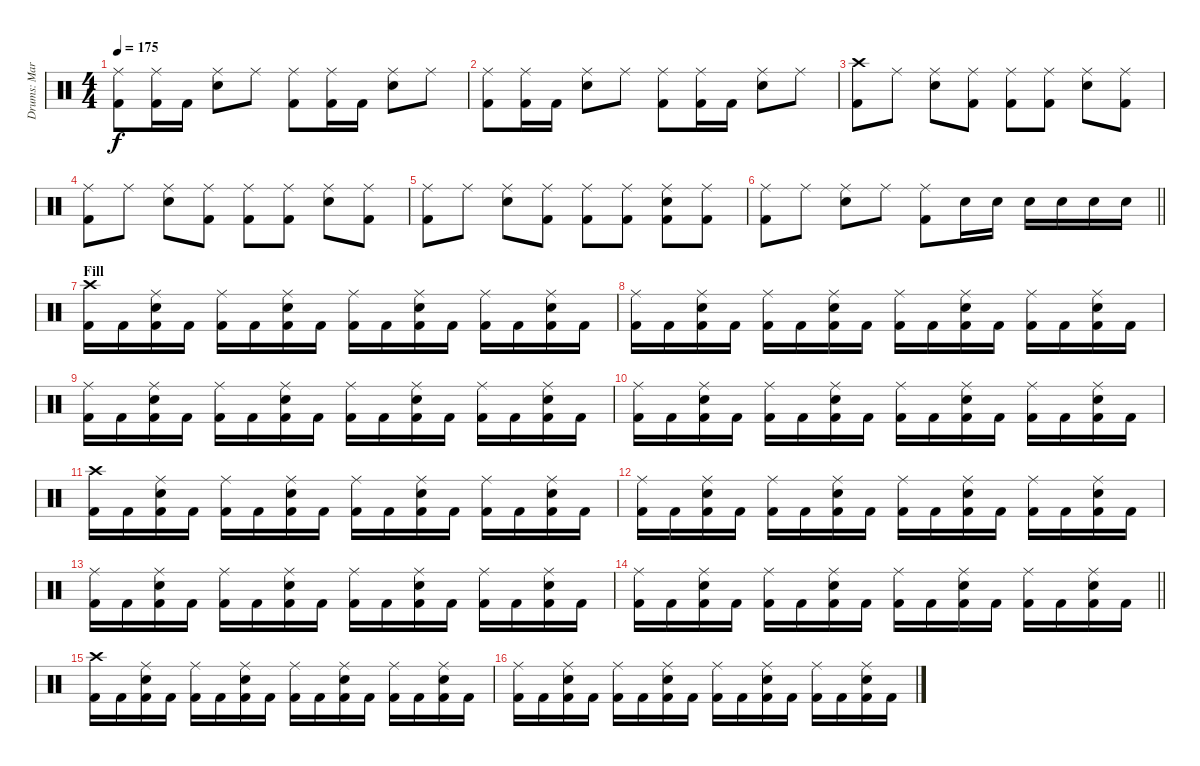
\track ("Drums: Martin Herzinger" "Drums: Mar") {instrument percussion}
\staff {score}
\articulation defaults
\ts (4 4)
\tempo 175
\clef neutral
\ks aminor
("Ride (middle)" "Kick (hit) 2").8{dy f} ("Ride (middle)" "Kick (hit) 2").16 "Kick (hit) 2".16 ("Ride (middle)" "Snare (hit) 2").8 "Ride (middle)".8 ("Ride (middle)" "Kick (hit) 2").8 ("Ride (middle)" "Kick (hit) 2").16 "Kick (hit) 2".16 ("Ride (middle)" "Snare (hit) 2").8 "Ride (middle)".8 |
("Ride (middle)" "Kick (hit) 2").8 ("Ride (middle)" "Kick (hit) 2").16 "Kick (hit) 2".16 ("Ride (middle)" "Snare (hit) 2").8 "Ride (middle)".8 ("Ride (middle)" "Kick (hit) 2").8 ("Ride (middle)" "Kick (hit) 2").16 "Kick (hit) 2".16 ("Ride (middle)" "Snare (hit) 2").8 "Ride (middle)".8 |
("Crash high (hit)" "Kick (hit) 2").8 "Ride (middle)".8 ("Ride (middle)" "Snare (hit) 2").8 ("Ride (middle)" "Kick (hit) 2").8 ("Ride (middle)" "Kick (hit) 2").8 ("Ride (middle)" "Kick (hit) 2").8 ("Ride (middle)" "Snare (hit) 2").8 ("Ride (middle)" "Kick (hit) 2").8 |
("Ride (middle)" "Kick (hit) 2").8 "Ride (middle)".8 ("Ride (middle)" "Snare (hit) 2").8 ("Ride (middle)" "Kick (hit) 2").8 ("Ride (middle)" "Kick (hit) 2").8 ("Ride (middle)" "Kick (hit) 2").8 ("Ride (middle)" "Snare (hit) 2").8 ("Ride (middle)" "Kick (hit) 2").8 |
("Ride (middle)" "Kick (hit) 2").8 "Ride (middle)".8 ("Ride (middle)" "Snare (hit) 2").8 ("Ride (middle)" "Kick (hit) 2").8 ("Ride (middle)" "Kick (hit) 2").8 ("Ride (middle)" "Kick (hit) 2").8 ("Ride (middle)" "Snare (hit) 2" "Kick (hit) 2").8 ("Ride (middle)" "Kick (hit) 2").8 |
\barLineRight lightlight
("Ride (middle)" "Kick (hit) 2").8 "Ride (middle)".8 ("Ride (middle)" "Snare (hit) 2").8 "Ride (middle)".8 ("Ride (middle)" "Kick (hit) 2").8 "Snare (hit) 2".16 "Snare (hit) 2".16 "Snare (hit) 2".16 "Snare (hit) 2".16 "Snare (hit) 2".16 "Snare (hit) 2".16 |
\section ("" "Fill")
("Crash high (hit)" "Kick (hit) 2").16 "Kick (hit) 2".16 ("Ride (middle)" "Snare (hit) 2" "Kick (hit) 2").16 "Kick (hit) 2".16 ("Ride (middle)" "Kick (hit) 2").16 "Kick (hit) 2".16 ("Ride (middle)" "Snare (hit) 2" "Kick (hit) 2").16 "Kick (hit) 2".16 ("Ride (middle)" "Kick (hit) 2").16 "Kick (hit) 2".16 ("Ride (middle)" "Snare (hit) 2" "Kick (hit) 2").16 "Kick (hit) 2".16 ("Ride (middle)" "Kick (hit) 2").16 "Kick (hit) 2".16 ("Ride (middle)" "Snare (hit) 2" "Kick (hit) 2").16 "Kick (hit) 2".16 |
("Ride (middle)" "Kick (hit) 2").16 "Kick (hit) 2".16 ("Ride (middle)" "Snare (hit) 2" "Kick (hit) 2").16 "Kick (hit) 2".16 ("Ride (middle)" "Kick (hit) 2").16 "Kick (hit) 2".16 ("Ride (middle)" "Snare (hit) 2" "Kick (hit) 2").16 "Kick (hit) 2".16 ("Ride (middle)" "Kick (hit) 2").16 "Kick (hit) 2".16 ("Ride (middle)" "Snare (hit) 2" "Kick (hit) 2").16 "Kick (hit) 2".16 ("Ride (middle)" "Kick (hit) 2").16 "Kick (hit) 2".16 ("Ride (middle)" "Snare (hit) 2" "Kick (hit) 2").16 "Kick (hit) 2".16 |
("Ride (middle)" "Kick (hit) 2").16 "Kick (hit) 2".16 ("Ride (middle)" "Snare (hit) 2" "Kick (hit) 2").16 "Kick (hit) 2".16 ("Ride (middle)" "Kick (hit) 2").16 "Kick (hit) 2".16 ("Ride (middle)" "Snare (hit) 2" "Kick (hit) 2").16 "Kick (hit) 2".16 ("Ride (middle)" "Kick (hit) 2").16 "Kick (hit) 2".16 ("Ride (middle)" "Snare (hit) 2" "Kick (hit) 2").16 "Kick (hit) 2".16 ("Ride (middle)" "Kick (hit) 2").16 "Kick (hit) 2".16 ("Ride (middle)" "Snare (hit) 2" "Kick (hit) 2").16 "Kick (hit) 2".16 |
("Ride (middle)" "Kick (hit) 2").16 "Kick (hit) 2".16 ("Ride (middle)" "Snare (hit) 2" "Kick (hit) 2").16 "Kick (hit) 2".16 ("Ride (middle)" "Kick (hit) 2").16 "Kick (hit) 2".16 ("Ride (middle)" "Snare (hit) 2" "Kick (hit) 2").16 "Kick (hit) 2".16 ("Ride (middle)" "Kick (hit) 2").16 "Kick (hit) 2".16 ("Ride (middle)" "Snare (hit) 2" "Kick (hit) 2").16 "Kick (hit) 2".16 ("Ride (middle)" "Kick (hit) 2").16 "Kick (hit) 2".16 ("Ride (middle)" "Snare (hit) 2" "Kick (hit) 2").16 "Kick (hit) 2".16 |
("Crash high (hit)" "Kick (hit) 2").16 "Kick (hit) 2".16 ("Ride (middle)" "Snare (hit) 2" "Kick (hit) 2").16 "Kick (hit) 2".16 ("Ride (middle)" "Kick (hit) 2").16 "Kick (hit) 2".16 ("Ride (middle)" "Snare (hit) 2" "Kick (hit) 2").16 "Kick (hit) 2".16 ("Ride (middle)" "Kick (hit) 2").16 "Kick (hit) 2".16 ("Ride (middle)" "Snare (hit) 2" "Kick (hit) 2").16 "Kick (hit) 2".16 ("Ride (middle)" "Kick (hit) 2").16 "Kick (hit) 2".16 ("Ride (middle)" "Snare (hit) 2" "Kick (hit) 2").16 "Kick (hit) 2".16 |
("Ride (middle)" "Kick (hit) 2").16 "Kick (hit) 2".16 ("Ride (middle)" "Snare (hit) 2" "Kick (hit) 2").16 "Kick (hit) 2".16 ("Ride (middle)" "Kick (hit) 2").16 "Kick (hit) 2".16 ("Ride (middle)" "Snare (hit) 2" "Kick (hit) 2").16 "Kick (hit) 2".16 ("Ride (middle)" "Kick (hit) 2").16 "Kick (hit) 2".16 ("Ride (middle)" "Snare (hit) 2" "Kick (hit) 2").16 "Kick (hit) 2".16 ("Ride (middle)" "Kick (hit) 2").16 "Kick (hit) 2".16 ("Ride (middle)" "Snare (hit) 2" "Kick (hit) 2").16 "Kick (hit) 2".16 |
("Ride (middle)" "Kick (hit) 2").16 "Kick (hit) 2".16 ("Ride (middle)" "Snare (hit) 2" "Kick (hit) 2").16 "Kick (hit) 2".16 ("Ride (middle)" "Kick (hit) 2").16 "Kick (hit) 2".16 ("Ride (middle)" "Snare (hit) 2" "Kick (hit) 2").16 "Kick (hit) 2".16 ("Ride (middle)" "Kick (hit) 2").16 "Kick (hit) 2".16 ("Ride (middle)" "Snare (hit) 2" "Kick (hit) 2").16 "Kick (hit) 2".16 ("Ride (middle)" "Kick (hit) 2").16 "Kick (hit) 2".16 ("Ride (middle)" "Snare (hit) 2" "Kick (hit) 2").16 "Kick (hit) 2".16 |
\barLineRight lightlight
("Ride (middle)" "Kick (hit) 2").16 "Kick (hit) 2".16 ("Ride (middle)" "Snare (hit) 2" "Kick (hit) 2").16 "Kick (hit) 2".16 ("Ride (middle)" "Kick (hit) 2").16 "Kick (hit) 2".16 ("Ride (middle)" "Snare (hit) 2" "Kick (hit) 2").16 "Kick (hit) 2".16 ("Ride (middle)" "Kick (hit) 2").16 "Kick (hit) 2".16 ("Ride (middle)" "Snare (hit) 2" "Kick (hit) 2").16 "Kick (hit) 2".16 ("Ride (middle)" "Kick (hit) 2").16 "Kick (hit) 2".16 ("Ride (middle)" "Snare (hit) 2" "Kick (hit) 2").16 "Kick (hit) 2".16 |
("Crash high (hit)" "Kick (hit) 2").16 "Kick (hit) 2".16 ("Ride (middle)" "Snare (hit) 2" "Kick (hit) 2").16 "Kick (hit) 2".16 ("Ride (middle)" "Kick (hit) 2").16 "Kick (hit) 2".16 ("Ride (middle)" "Snare (hit) 2" "Kick (hit) 2").16 "Kick (hit) 2".16 ("Ride (middle)" "Kick (hit) 2").16 "Kick (hit) 2".16 ("Ride (middle)" "Snare (hit) 2" "Kick (hit) 2").16 "Kick (hit) 2".16 ("Ride (middle)" "Kick (hit) 2").16 "Kick (hit) 2".16 ("Ride (middle)" "Snare (hit) 2" "Kick (hit) 2").16 "Kick (hit) 2".16 |
("Ride (middle)" "Kick (hit) 2").16 "Kick (hit) 2".16 ("Ride (middle)" "Snare (hit) 2" "Kick (hit) 2").16 "Kick (hit) 2".16 ("Ride (middle)" "Kick (hit) 2").16 "Kick (hit) 2".16 ("Ride (middle)" "Snare (hit) 2" "Kick (hit) 2").16 "Kick (hit) 2".16 ("Ride (middle)" "Kick (hit) 2").16 "Kick (hit) 2".16 ("Ride (middle)" "Snare (hit) 2" "Kick (hit) 2").16 "Kick (hit) 2".16 ("Ride (middle)" "Kick (hit) 2").16 "Kick (hit) 2".16 ("Ride (middle)" "Snare (hit) 2" "Kick (hit) 2").16 "Kick (hit) 2".16
